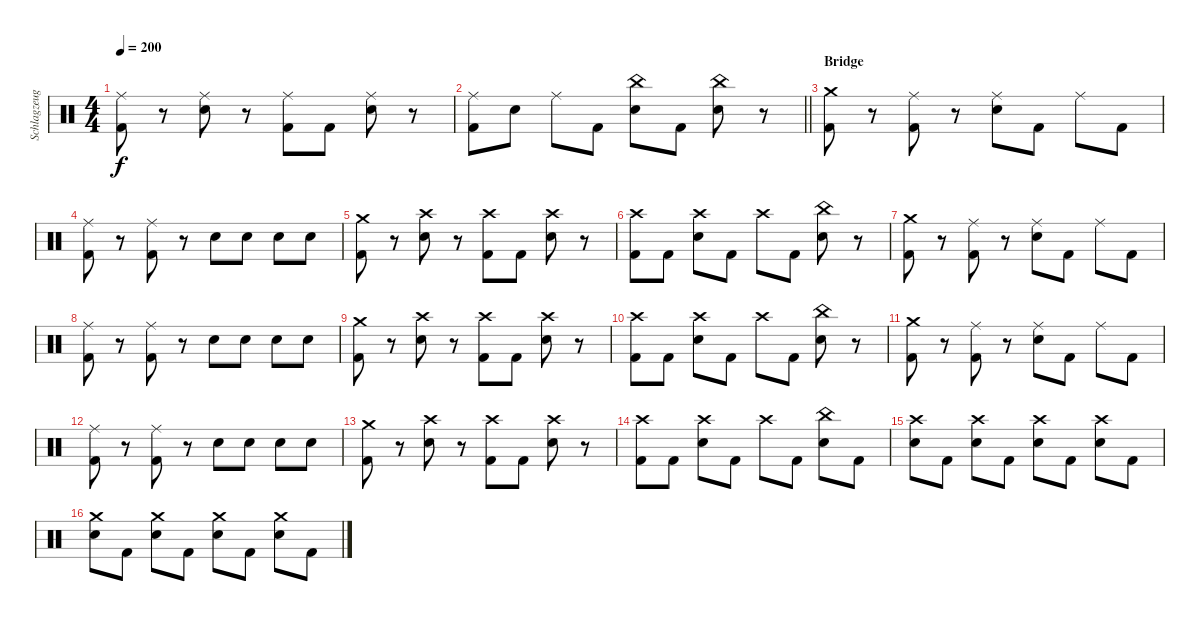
\track ("Schlagzeug" "Schlagzeug") {instrument percussion}
\staff {score}
\articulation defaults
\ts (4 4)
\tempo 200
\clef neutral
\ks c
("Ride (middle)" "Kick (hit) 2").8{dy f} r.8 ("Ride (middle)" "Electric Snare (hit)").8 r.8 ("Ride (middle)" "Kick (hit) 2").8 "Kick (hit) 2".8 ("Ride (middle)" "Electric Snare (hit)").8 r.8 |
\barLineRight lightlight
("Ride (middle)" "Kick (hit) 2").8 "Electric Snare (hit)".8 "Ride (middle)".8 "Kick (hit) 2".8 ("China (hit)" "Electric Snare (hit)").8 "Kick (hit) 2".8 ("China (hit)" "Electric Snare (hit)").8 r.8 |
\section ("" "Bridge")
("Crash medium (hit)" "Kick (hit) 2").8 r.8 ("Ride (middle)" "Kick (hit) 2").8 r.8 ("Ride (middle)" "Electric Snare (hit)").8 "Kick (hit) 2".8 "Ride (middle)".8 "Kick (hit) 2".8 |
("Ride (middle)" "Kick (hit) 2").8 r.8 ("Ride (middle)" "Kick (hit) 2").8 r.8 "Electric Snare (hit)".8 "Electric Snare (hit)".8 "Electric Snare (hit)".8 "Electric Snare (hit)".8 |
("Crash medium (hit)" "Kick (hit) 2").8 r.8 ("Crash high (hit)" "Electric Snare (hit)").8 r.8 ("Crash high (hit)" "Kick (hit) 2").8 "Kick (hit) 2".8 ("Crash high (hit)" "Electric Snare (hit)").8 r.8 |
("Crash high (hit)" "Kick (hit) 2").8 "Kick (hit) 2".8 ("Crash high (hit)" "Electric Snare (hit)").8 "Kick (hit) 2".8 "Crash high (hit)".8 "Kick (hit) 2".8 ("China (hit)" "Electric Snare (hit)").8 r.8 |
("Crash medium (hit)" "Kick (hit) 2").8 r.8 ("Ride (middle)" "Kick (hit) 2").8 r.8 ("Ride (middle)" "Electric Snare (hit)").8 "Kick (hit) 2".8 "Ride (middle)".8 "Kick (hit) 2".8 |
("Ride (middle)" "Kick (hit) 2").8 r.8 ("Ride (middle)" "Kick (hit) 2").8 r.8 "Electric Snare (hit)".8 "Electric Snare (hit)".8 "Electric Snare (hit)".8 "Electric Snare (hit)".8 |
("Crash medium (hit)" "Kick (hit) 2").8 r.8 ("Crash high (hit)" "Electric Snare (hit)").8 r.8 ("Crash high (hit)" "Kick (hit) 2").8 "Kick (hit) 2".8 ("Crash high (hit)" "Electric Snare (hit)").8 r.8 |
("Crash high (hit)" "Kick (hit) 2").8 "Kick (hit) 2".8 ("Crash high (hit)" "Electric Snare (hit)").8 "Kick (hit) 2".8 "Crash high (hit)".8 "Kick (hit) 2".8 ("China (hit)" "Electric Snare (hit)").8 r.8 |
("Crash medium (hit)" "Kick (hit) 2").8 r.8 ("Ride (middle)" "Kick (hit) 2").8 r.8 ("Ride (middle)" "Electric Snare (hit)").8 "Kick (hit) 2".8 "Ride (middle)".8 "Kick (hit) 2".8 |
("Ride (middle)" "Kick (hit) 2").8 r.8 ("Ride (middle)" "Kick (hit) 2").8 r.8 "Electric Snare (hit)".8 "Electric Snare (hit)".8 "Electric Snare (hit)".8 "Electric Snare (hit)".8 |
("Crash medium (hit)" "Kick (hit) 2").8 r.8 ("Crash high (hit)" "Electric Snare (hit)").8 r.8 ("Crash high (hit)" "Kick (hit) 2").8 "Kick (hit) 2".8 ("Crash high (hit)" "Electric Snare (hit)").8 r.8 |
("Crash high (hit)" "Kick (hit) 2").8 "Kick (hit) 2".8 ("Crash high (hit)" "Electric Snare (hit)").8 "Kick (hit) 2".8 "Crash high (hit)".8 "Kick (hit) 2".8 ("China (hit)" "Electric Snare (hit)").8 "Kick (hit) 2".8 |
("Crash high (hit)" "Electric Snare (hit)").8 "Kick (hit) 2".8 ("Crash high (hit)" "Electric Snare (hit)").8 "Kick (hit) 2".8 ("Crash high (hit)" "Electric Snare (hit)").8 "Kick (hit) 2".8 ("Crash high (hit)" "Electric Snare (hit)").8 "Kick (hit) 2".8 |
("Crash medium (hit)" "Electric Snare (hit)").8 "Kick (hit) 2".8 ("Crash medium (hit)" "Electric Snare (hit)").8 "Kick (hit) 2".8 ("Crash medium (hit)" "Electric Snare (hit)").8 "Kick (hit) 2".8 ("Crash medium (hit)" "Electric Snare (hit)").8 "Kick (hit) 2".8
